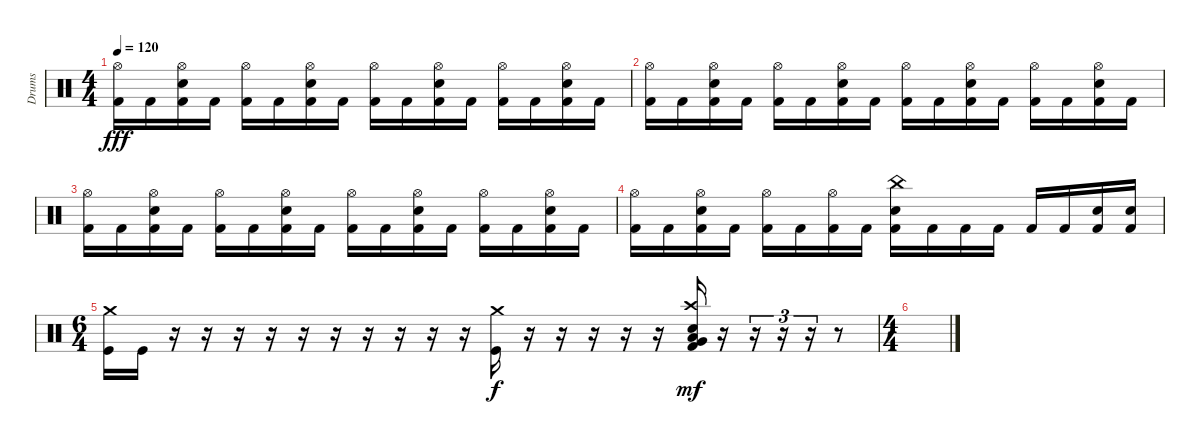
\track ("Drums" "Drums") {instrument percussion}
\staff {score}
\articulation defaults
\ts (4 4)
\tempo 120
\clef neutral
\ks c
("Hi-Hat (open)" "Kick (hit) 2").16{dy fff} "Kick (hit) 2".16 ("Hi-Hat (open)" "Electric Snare (hit)" "Kick (hit) 2").16 "Kick (hit) 2".16 ("Hi-Hat (open)" "Kick (hit) 2").16 "Kick (hit) 2".16 ("Hi-Hat (open)" "Electric Snare (hit)" "Kick (hit) 2").16 "Kick (hit) 2".16 ("Hi-Hat (open)" "Kick (hit) 2").16 "Kick (hit) 2".16 ("Hi-Hat (open)" "Electric Snare (hit)" "Kick (hit) 2").16 "Kick (hit) 2".16 ("Hi-Hat (open)" "Kick (hit) 2").16 "Kick (hit) 2".16 ("Hi-Hat (open)" "Electric Snare (hit)" "Kick (hit) 2").16 "Kick (hit) 2".16 |
("Hi-Hat (open)" "Kick (hit) 2").16 "Kick (hit) 2".16 ("Hi-Hat (open)" "Electric Snare (hit)" "Kick (hit) 2").16 "Kick (hit) 2".16 ("Hi-Hat (open)" "Kick (hit) 2").16 "Kick (hit) 2".16 ("Hi-Hat (open)" "Electric Snare (hit)" "Kick (hit) 2").16 "Kick (hit) 2".16 ("Hi-Hat (open)" "Kick (hit) 2").16 "Kick (hit) 2".16 ("Hi-Hat (open)" "Electric Snare (hit)" "Kick (hit) 2").16 "Kick (hit) 2".16 ("Hi-Hat (open)" "Kick (hit) 2").16 "Kick (hit) 2".16 ("Hi-Hat (open)" "Electric Snare (hit)" "Kick (hit) 2").16 "Kick (hit) 2".16 |
("Hi-Hat (open)" "Kick (hit) 2").16 "Kick (hit) 2".16 ("Hi-Hat (open)" "Electric Snare (hit)" "Kick (hit) 2").16 "Kick (hit) 2".16 ("Hi-Hat (open)" "Kick (hit) 2").16 "Kick (hit) 2".16 ("Hi-Hat (open)" "Electric Snare (hit)" "Kick (hit) 2").16 "Kick (hit) 2".16 ("Hi-Hat (open)" "Kick (hit) 2").16 "Kick (hit) 2".16 ("Hi-Hat (open)" "Electric Snare (hit)" "Kick (hit) 2").16 "Kick (hit) 2".16 ("Hi-Hat (open)" "Kick (hit) 2").16 "Kick (hit) 2".16 ("Hi-Hat (open)" "Electric Snare (hit)" "Kick (hit) 2").16 "Kick (hit) 2".16 |
("Hi-Hat (open)" "Kick (hit) 2").16 "Kick (hit) 2".16 ("Hi-Hat (open)" "Electric Snare (hit)" "Kick (hit) 2").16 "Kick (hit) 2".16 ("Hi-Hat (open)" "Kick (hit) 2").16 "Kick (hit) 2".16 ("Hi-Hat (open)" "Kick (hit) 2").16 "Kick (hit) 2".16 ("China (hit)" "Electric Snare (hit)" "Kick (hit) 2").16 "Kick (hit) 2".16 "Kick (hit) 2".16 "Kick (hit) 2".16 "Kick (hit) 2".16 "Kick (hit) 2".16 ("Electric Snare (hit)" "Kick (hit) 2").16 ("Electric Snare (hit)" "Kick (hit) 2").16 |
\ts (6 4)
("Crash medium (hit)" "Kick (hit)").16 "Kick (hit)".16 r.16 r.16 r.16 r.16 r.16 r.16 r.16 r.16 r.16 r.16 ("Crash medium (hit)" "Kick (hit)").16{dy f} r.16 r.16 r.16 r.16 r.16 ("Crash high (hit)" "Electric Snare (hit)" "Kick (hit) 2" "Very Low Tom (hit)" "Low Floor Tom (hit)").16{dy mf} r.16 r.16{tu (3 2)} r.16{tu (3 2)} r.16{tu (3 2)} r.8 |
\ts (4 4)
